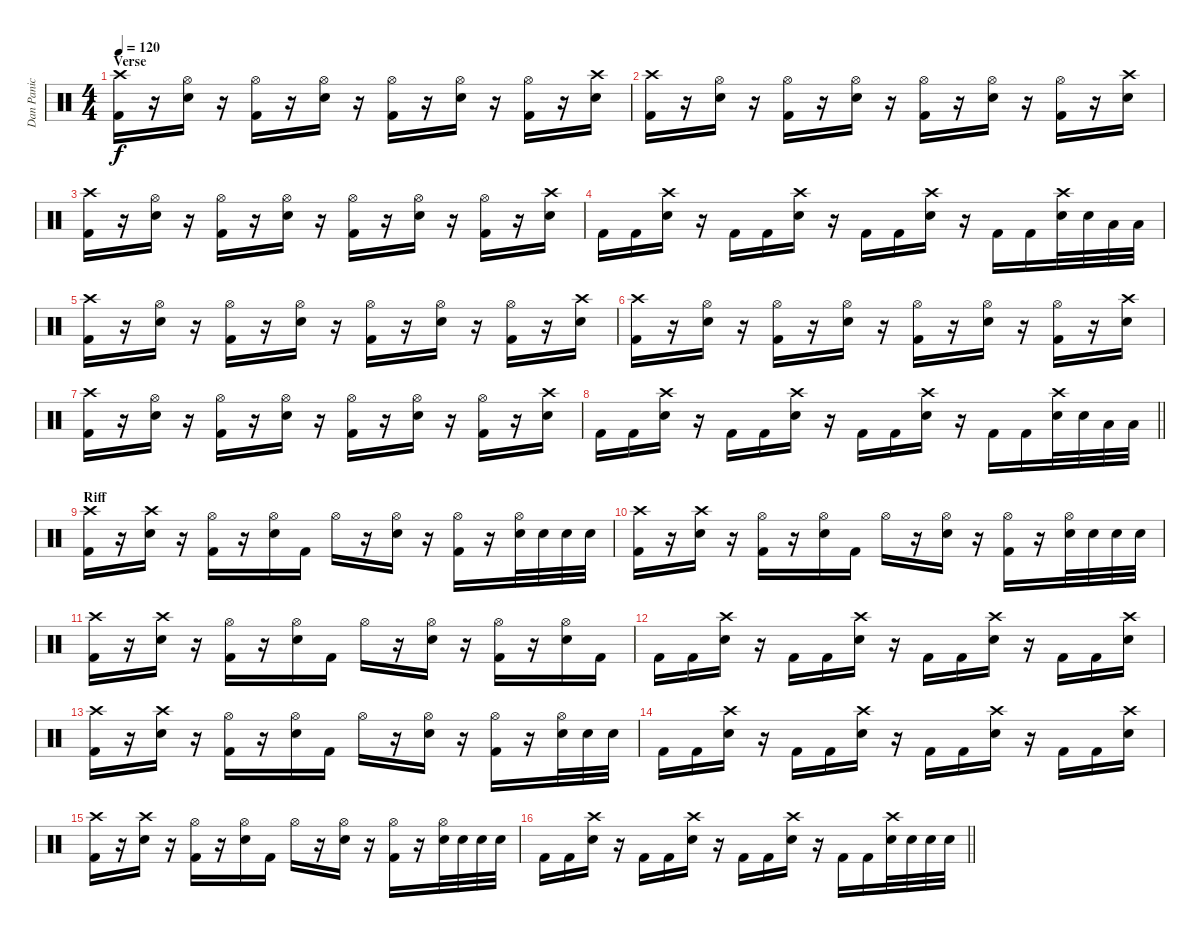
\track ("Dan Panic" "Dan Panic") {instrument percussion}
\staff {score}
\articulation defaults
\ts (4 4)
\section ("" "Verse")
\tempo 120
\clef neutral
\ks c
("Crash high (hit)" "Kick (hit) 2").16{dy f} r.16 ("Hi-Hat (open)" "Electric Snare (hit)").16 r.16 ("Hi-Hat (open)" "Kick (hit) 2").16 r.16 ("Hi-Hat (open)" "Electric Snare (hit)").16 r.16 ("Hi-Hat (open)" "Kick (hit) 2").16 r.16 ("Hi-Hat (open)" "Electric Snare (hit)").16 r.16 ("Hi-Hat (open)" "Kick (hit) 2").16 r.16 ("Crash high (hit)" "Electric Snare (hit)").16 |
("Crash high (hit)" "Kick (hit) 2").16 r.16 ("Hi-Hat (open)" "Electric Snare (hit)").16 r.16 ("Hi-Hat (open)" "Kick (hit) 2").16 r.16 ("Hi-Hat (open)" "Electric Snare (hit)").16 r.16 ("Hi-Hat (open)" "Kick (hit) 2").16 r.16 ("Hi-Hat (open)" "Electric Snare (hit)").16 r.16 ("Hi-Hat (open)" "Kick (hit) 2").16 r.16 ("Crash high (hit)" "Electric Snare (hit)").16 |
("Crash high (hit)" "Kick (hit) 2").16 r.16 ("Hi-Hat (open)" "Electric Snare (hit)").16 r.16 ("Hi-Hat (open)" "Kick (hit) 2").16 r.16 ("Hi-Hat (open)" "Electric Snare (hit)").16 r.16 ("Hi-Hat (open)" "Kick (hit) 2").16 r.16 ("Hi-Hat (open)" "Electric Snare (hit)").16 r.16 ("Hi-Hat (open)" "Kick (hit) 2").16 r.16 ("Crash high (hit)" "Electric Snare (hit)").16 |
"Kick (hit) 2".16 "Kick (hit) 2".16 ("Crash high (hit)" "Electric Snare (hit)").16 r.16 "Kick (hit) 2".16 "Kick (hit) 2".16 ("Crash high (hit)" "Electric Snare (hit)").16 r.16 "Kick (hit) 2".16 "Kick (hit) 2".16 ("Crash high (hit)" "Electric Snare (hit)").16 r.16 "Kick (hit) 2".16 "Kick (hit) 2".16 ("Crash high (hit)" "Electric Snare (hit)").32 "Electric Snare (hit)".32 "Low Tom (hit)".32 "Low Tom (hit)".32 |
("Crash high (hit)" "Kick (hit) 2").16 r.16 ("Hi-Hat (open)" "Electric Snare (hit)").16 r.16 ("Hi-Hat (open)" "Kick (hit) 2").16 r.16 ("Hi-Hat (open)" "Electric Snare (hit)").16 r.16 ("Hi-Hat (open)" "Kick (hit) 2").16 r.16 ("Hi-Hat (open)" "Electric Snare (hit)").16 r.16 ("Hi-Hat (open)" "Kick (hit) 2").16 r.16 ("Crash high (hit)" "Electric Snare (hit)").16 |
("Crash high (hit)" "Kick (hit) 2").16 r.16 ("Hi-Hat (open)" "Electric Snare (hit)").16 r.16 ("Hi-Hat (open)" "Kick (hit) 2").16 r.16 ("Hi-Hat (open)" "Electric Snare (hit)").16 r.16 ("Hi-Hat (open)" "Kick (hit) 2").16 r.16 ("Hi-Hat (open)" "Electric Snare (hit)").16 r.16 ("Hi-Hat (open)" "Kick (hit) 2").16 r.16 ("Crash high (hit)" "Electric Snare (hit)").16 |
("Crash high (hit)" "Kick (hit) 2").16 r.16 ("Hi-Hat (open)" "Electric Snare (hit)").16 r.16 ("Hi-Hat (open)" "Kick (hit) 2").16 r.16 ("Hi-Hat (open)" "Electric Snare (hit)").16 r.16 ("Hi-Hat (open)" "Kick (hit) 2").16 r.16 ("Hi-Hat (open)" "Electric Snare (hit)").16 r.16 ("Hi-Hat (open)" "Kick (hit) 2").16 r.16 ("Crash high (hit)" "Electric Snare (hit)").16 |
\barLineRight lightlight "Kick (hit) 2".16 "Kick (hit) 2".16
("Crash high (hit)" "Electric Snare (hit)").16 r.16 "Kick (hit) 2".16 "Kick (hit) 2".16 ("Crash high (hit)" "Electric Snare (hit)").16 r.16 "Kick (hit) 2".16 "Kick (hit) 2".16 ("Crash high (hit)" "Electric Snare (hit)").16 r.16 "Kick (hit) 2".16 "Kick (hit) 2".16 ("Crash high (hit)" "Electric Snare (hit)").32 "Electric Snare (hit)".32 "Low Tom (hit)".32 "Low Tom (hit)".32 |
\section ("" "Riff")
("Crash high (hit)" "Kick (hit) 2").16 r.16 ("Crash high (hit)" "Electric Snare (hit)").16 r.16 ("Hi-Hat (open)" "Kick (hit) 2").16 r.16 ("Hi-Hat (open)" "Electric Snare (hit)").16 "Kick (hit) 2".16 "Hi-Hat (open)".16 r.16 ("Hi-Hat (open)" "Electric Snare (hit)").16 r.16 ("Hi-Hat (open)" "Kick (hit) 2").16 r.16 ("Hi-Hat (open)" "Electric Snare (hit)").32 "Electric Snare (hit)".32 "Electric Snare (hit)".32 "Electric Snare (hit)".32 |
("Crash high (hit)" "Kick (hit) 2").16 r.16 ("Crash high (hit)" "Electric Snare (hit)").16 r.16 ("Hi-Hat (open)" "Kick (hit) 2").16 r.16 ("Hi-Hat (open)" "Electric Snare (hit)").16 "Kick (hit) 2".16 "Hi-Hat (open)".16 r.16 ("Hi-Hat (open)" "Electric Snare (hit)").16 r.16 ("Hi-Hat (open)" "Kick (hit) 2").16 r.16 ("Hi-Hat (open)" "Electric Snare (hit)").32 "Electric Snare (hit)".32 "Electric Snare (hit)".32 "Electric Snare (hit)".32 |
("Crash high (hit)" "Kick (hit) 2").16 r.16 ("Crash high (hit)" "Electric Snare (hit)").16 r.16 ("Hi-Hat (open)" "Kick (hit) 2").16 r.16 ("Hi-Hat (open)" "Electric Snare (hit)").16 "Kick (hit) 2".16 "Hi-Hat (open)".16 r.16 ("Hi-Hat (open)" "Electric Snare (hit)").16 r.16 ("Hi-Hat (open)" "Kick (hit) 2").16 r.16 ("Hi-Hat (open)" "Electric Snare (hit)").16 "Kick (hit) 2".16 |
"Kick (hit) 2".16 "Kick (hit) 2".16 ("Crash high (hit)" "Electric Snare (hit)").16 r.16 "Kick (hit) 2".16 "Kick (hit) 2".16 ("Crash high (hit)" "Electric Snare (hit)").16 r.16 "Kick (hit) 2".16 "Kick (hit) 2".16 ("Crash high (hit)" "Electric Snare (hit)").16 r.16 "Kick (hit) 2".16 "Kick (hit) 2".16 ("Crash high (hit)" "Electric Snare (hit)").16 |
("Crash high (hit)" "Kick (hit) 2").16 r.16 ("Crash high (hit)" "Electric Snare (hit)").16 r.16 ("Hi-Hat (open)" "Kick (hit) 2").16 r.16 ("Hi-Hat (open)" "Electric Snare (hit)").16 "Kick (hit) 2".16 "Hi-Hat (open)".16 r.16 ("Hi-Hat (open)" "Electric Snare (hit)").16 r.16 ("Hi-Hat (open)" "Kick (hit) 2").16 r.16 ("Hi-Hat (open)" "Electric Snare (hit)").32 "Electric Snare (hit)".32 "Electric Snare (hit)".32 |
"Kick (hit) 2".16 "Kick (hit) 2".16 ("Crash high (hit)" "Electric Snare (hit)").16 r.16 "Kick (hit) 2".16 "Kick (hit) 2".16 ("Crash high (hit)" "Electric Snare (hit)").16 r.16 "Kick (hit) 2".16 "Kick (hit) 2".16 ("Crash high (hit)" "Electric Snare (hit)").16 r.16 "Kick (hit) 2".16 "Kick (hit) 2".16 ("Crash high (hit)" "Electric Snare (hit)").16 |
("Crash high (hit)" "Kick (hit) 2").16 r.16 ("Crash high (hit)" "Electric Snare (hit)").16 r.16 ("Hi-Hat (open)" "Kick (hit) 2").16 r.16 ("Hi-Hat (open)" "Electric Snare (hit)").16 "Kick (hit) 2".16 "Hi-Hat (open)".16 r.16 ("Hi-Hat (open)" "Electric Snare (hit)").16 r.16 ("Hi-Hat (open)" "Kick (hit) 2").16 r.16 ("Hi-Hat (open)" "Electric Snare (hit)").32 "Electric Snare (hit)".32 "Electric Snare (hit)".32 "Electric Snare (hit)".32 |
\barLineRight lightlight "Kick (hit) 2".16 "Kick (hit) 2".16
("Crash high (hit)" "Electric Snare (hit)").16 r.16 "Kick (hit) 2".16 "Kick (hit) 2".16 ("Crash high (hit)" "Electric Snare (hit)").16 r.16 "Kick (hit) 2".16 "Kick (hit) 2".16 ("Crash high (hit)" "Electric Snare (hit)").16 r.16 "Kick (hit) 2".16 "Kick (hit) 2".16 ("Crash high (hit)" "Electric Snare (hit)").32 "Electric Snare (hit)".32 "Electric Snare (hit)".32 "Electric Snare (hit)".32
